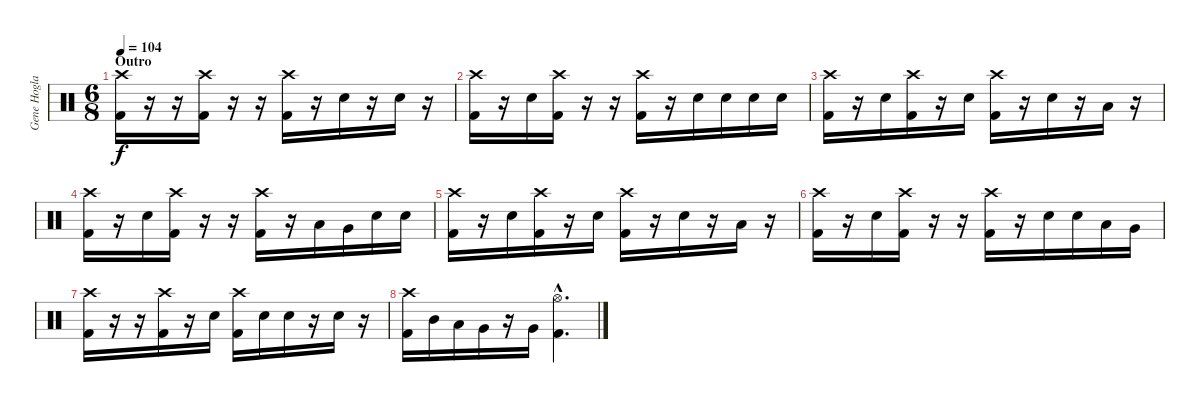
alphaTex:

\track ("Gene Hoglan" "Gene Hogla") {instrument percussion}
\staff {score}
\articulation defaults
\ts (6 8)
\section ("" "Outro")
\tempo 104
\clef neutral
\ks c
("Crash high (hit)" "Kick (hit) 2").16{dy f} r.16 r.16 ("Crash high (hit)" "Kick (hit) 2").16 r.16 r.16 ("Crash high (hit)" "Kick (hit) 2").16 r.16 "Snare (hit) 2".16 r.16 "Snare (hit) 2".16 r.16 |
("Crash high (hit)" "Kick (hit) 2").16 r.16 "Snare (hit) 2".16 ("Crash high (hit)" "Kick (hit) 2").16 r.16 r.16 ("Crash high (hit)" "Kick (hit) 2").16 r.16 "Snare (hit) 2".16 "Snare (hit) 2".16 "Snare (hit) 2".16 "Snare (hit) 2".16 |
("Crash high (hit)" "Kick (hit) 2").16 r.16 "Snare (hit) 2".16 ("Crash high (hit)" "Kick (hit) 2").16 r.16 "Snare (hit) 2".16 ("Crash high (hit)" "Kick (hit) 2").16 r.16 "Snare (hit) 2".16 r.16 "Low Tom (hit)".16 r.16 |
("Crash high (hit)" "Kick (hit) 2").16 r.16 "Snare (hit) 2".16 ("Crash high (hit)" "Kick (hit) 2").16 r.16 r.16 ("Crash high (hit)" "Kick (hit) 2").16 r.16 "Low Tom (hit)".16 "Very Low Tom (hit)".16 "Snare (hit) 2".16 "Snare (hit) 2".16 |
("Crash high (hit)" "Kick (hit) 2").16 r.16 "Snare (hit) 2".16 ("Crash high (hit)" "Kick (hit) 2").16 r.16 "Snare (hit) 2".16 ("Crash high (hit)" "Kick (hit) 2").16 r.16 "Snare (hit) 2".16 r.16 "Low Tom (hit)".16 r.16 |
("Crash high (hit)" "Kick (hit) 2").16 r.16 "Snare (hit) 2".16 ("Crash high (hit)" "Kick (hit) 2").16 r.16 r.16 ("Crash high (hit)" "Kick (hit) 2").16 r.16 "Snare (hit) 2".16 "Snare (hit) 2".16 "Low Tom (hit)".16 "Very Low Tom (hit)".16 |
("Crash high (hit)" "Kick (hit) 2").16 r.16 r.16 ("Crash high (hit)" "Kick (hit) 2").16 r.16 "Snare (hit) 2".16 ("Crash high (hit)" "Kick (hit) 2").16 "Snare (hit) 2".16 "Snare (hit) 2".16 r.16 "Snare (hit) 2".16 r.16 |
("Crash high (hit)" "Kick (hit) 2").16 "Mid Tom (hit)".16 "Low Tom (hit)".16 "Very Low Tom (hit)".16 r.16 "Very Low Tom (hit)".16 ("Hi-Hat (open)"{hac} "Kick (hit) 2"{hac}).4{d}
